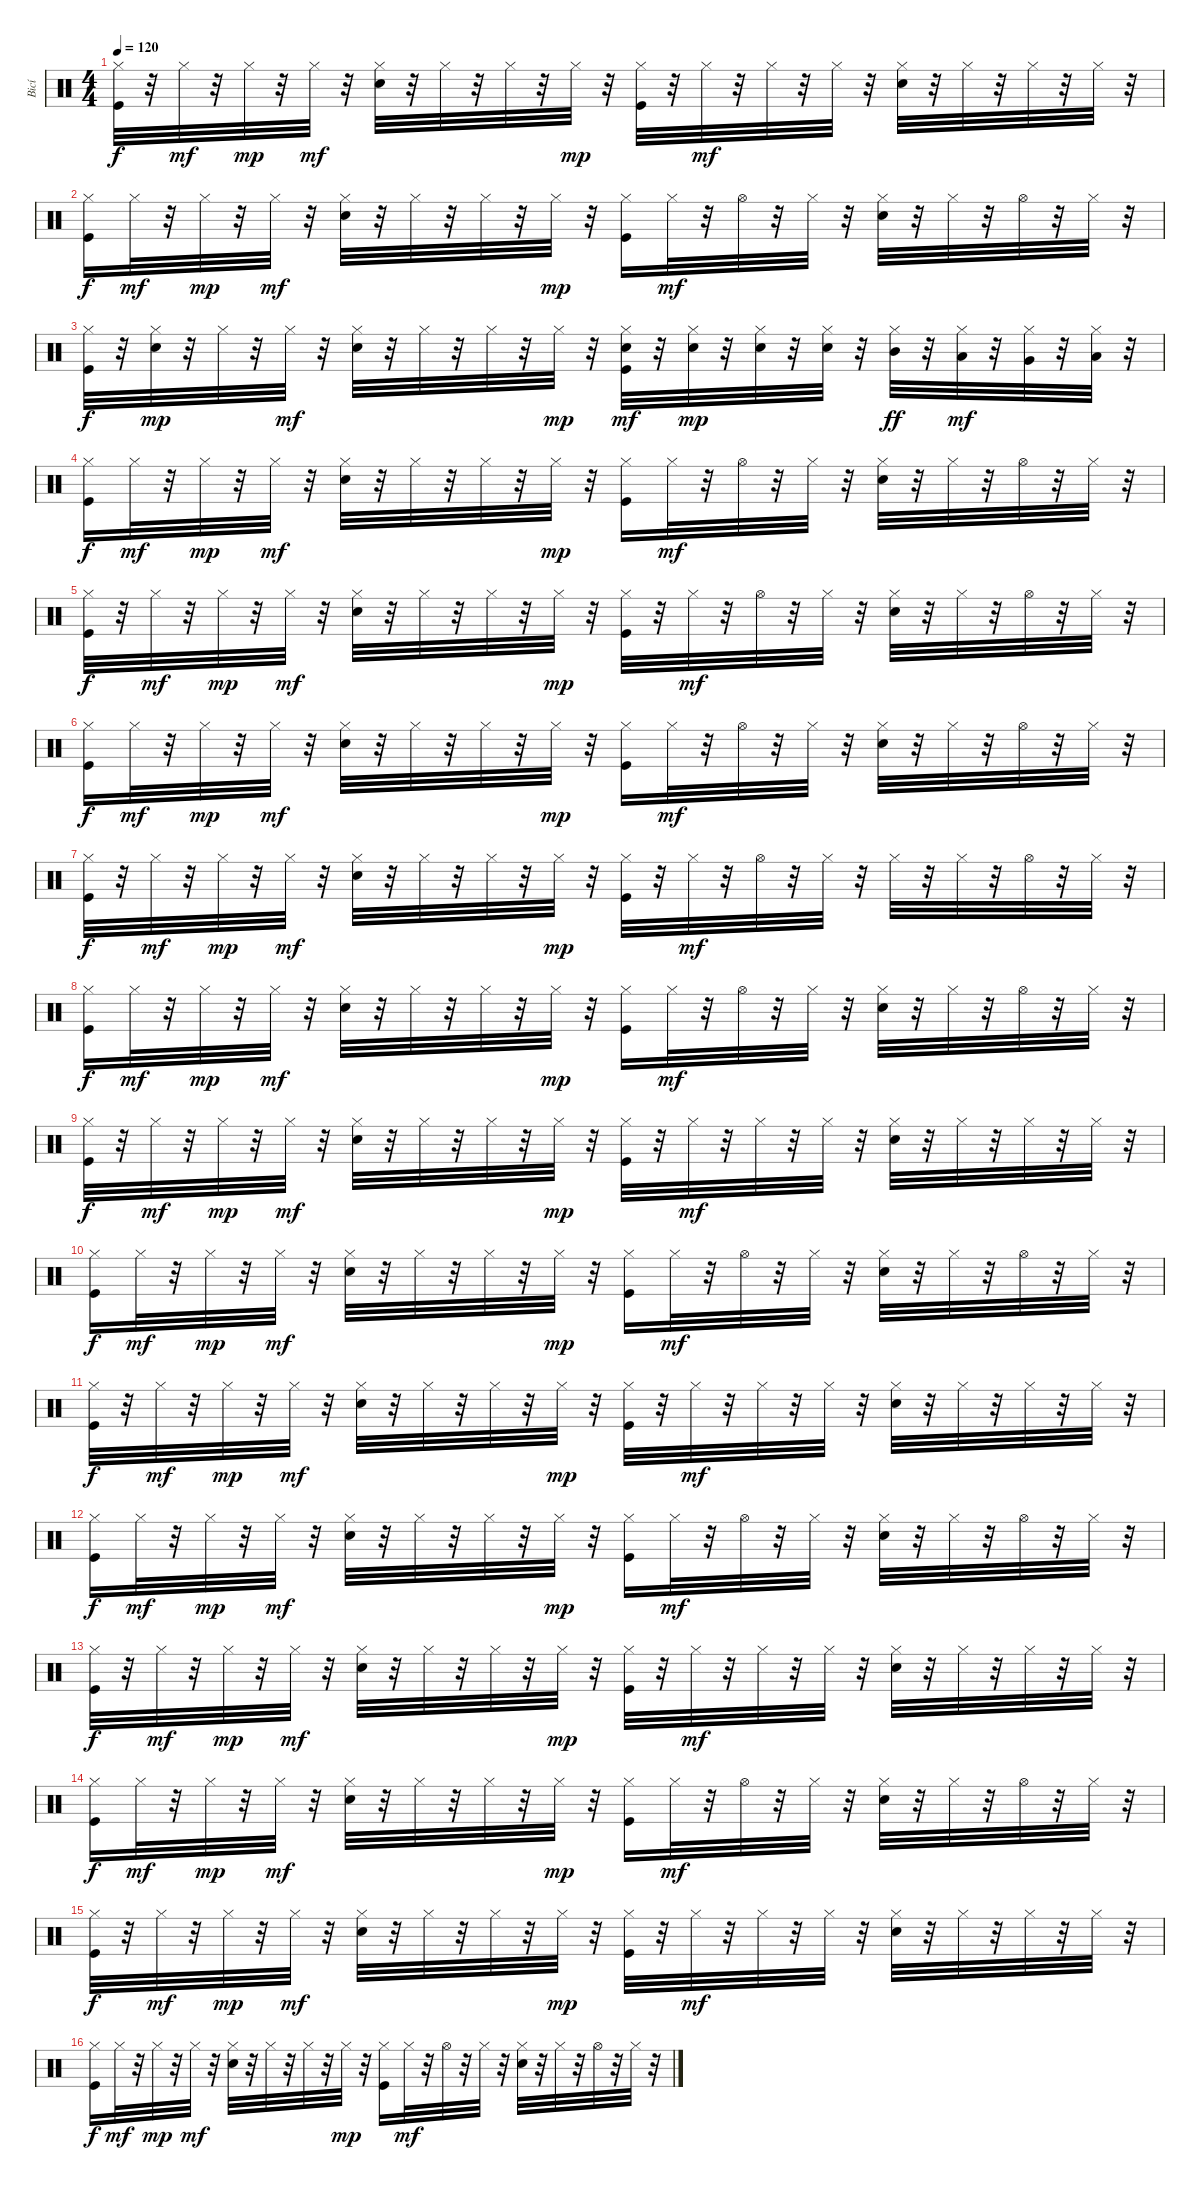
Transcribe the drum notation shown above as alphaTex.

\track ("Bicí" "Bicí") {instrument percussion}
\staff {score}
\articulation defaults
\ts (4 4)
\tempo 120
\clef neutral
\ks c
("Hi-Hat (closed)" "Kick (hit)").32{dy f} r.32 "Hi-Hat (closed)".32{dy mf} r.32 "Hi-Hat (closed)".32{dy mp} r.32 "Hi-Hat (closed)".32{dy mf} r.32 ("Hi-Hat (closed)" "Snare (hit) 2").32 r.32 "Hi-Hat (closed)".32 r.32 "Hi-Hat (closed)".32 r.32 "Hi-Hat (closed)".32{dy mp} r.32 ("Hi-Hat (closed)" "Kick (hit)").32 r.32 "Hi-Hat (closed)".32{dy mf} r.32 "Hi-Hat (closed)".32 r.32 "Hi-Hat (closed)".32 r.32 ("Hi-Hat (closed)" "Snare (hit) 2").32 r.32 "Hi-Hat (closed)".32 r.32 "Hi-Hat (closed)".32 r.32 "Hi-Hat (closed)".32 r.32 |
("Hi-Hat (closed)" "Kick (hit)").16{dy f} "Hi-Hat (closed)".32{dy mf} r.32 "Hi-Hat (closed)".32{dy mp} r.32 "Hi-Hat (closed)".32{dy mf} r.32 ("Hi-Hat (closed)" "Snare (hit) 2").32 r.32 "Hi-Hat (closed)".32 r.32 "Hi-Hat (closed)".32 r.32 "Hi-Hat (closed)".32{dy mp} r.32 ("Hi-Hat (closed)" "Kick (hit)").16 "Hi-Hat (closed)".32{dy mf} r.32 "Hi-Hat (open)".32 r.32 "Hi-Hat (closed)".32 r.32 ("Hi-Hat (closed)" "Snare (hit) 2").32 r.32 "Hi-Hat (closed)".32 r.32 "Hi-Hat (open)".32 r.32 "Hi-Hat (closed)".32 r.32 |
("Hi-Hat (closed)" "Kick (hit)").32{dy f} r.32 ("Hi-Hat (closed)" "Snare (hit) 2").32{dy mp} r.32 "Hi-Hat (closed)".32 r.32 "Hi-Hat (closed)".32{dy mf} r.32 ("Hi-Hat (closed)" "Snare (hit) 2").32 r.32 "Hi-Hat (closed)".32 r.32 "Hi-Hat (closed)".32 r.32 "Hi-Hat (closed)".32{dy mp} r.32 ("Hi-Hat (closed)" "Kick (hit)" "Snare (hit) 2").32{dy mf} r.32 ("Hi-Hat (closed)" "Snare (hit) 2").32{dy mp} r.32 ("Hi-Hat (closed)" "Snare (hit) 2").32 r.32 ("Hi-Hat (closed)" "Snare (hit) 2").32 r.32 ("Hi-Hat (closed)" "Mid Tom (hit)").32{dy ff} r.32 ("Hi-Hat (closed)" "Low Tom (hit)").32{dy mf} r.32 ("Hi-Hat (closed)" "Very Low Tom (hit)").32 r.32 ("Hi-Hat (closed)" "Low Floor Tom (hit)").32 r.32 |
("Hi-Hat (closed)" "Kick (hit)").16{dy f} "Hi-Hat (closed)".32{dy mf} r.32 "Hi-Hat (closed)".32{dy mp} r.32 "Hi-Hat (closed)".32{dy mf} r.32 ("Hi-Hat (closed)" "Snare (hit) 2").32 r.32 "Hi-Hat (closed)".32 r.32 "Hi-Hat (closed)".32 r.32 "Hi-Hat (closed)".32{dy mp} r.32 ("Hi-Hat (closed)" "Kick (hit)").16 "Hi-Hat (closed)".32{dy mf} r.32 "Hi-Hat (open)".32 r.32 "Hi-Hat (closed)".32 r.32 ("Hi-Hat (closed)" "Snare (hit) 2").32 r.32 "Hi-Hat (closed)".32 r.32 "Hi-Hat (open)".32 r.32 "Hi-Hat (closed)".32 r.32 |
("Hi-Hat (closed)" "Kick (hit)").32{dy f} r.32 "Hi-Hat (closed)".32{dy mf} r.32 "Hi-Hat (closed)".32{dy mp} r.32 "Hi-Hat (closed)".32{dy mf} r.32 ("Hi-Hat (closed)" "Snare (hit) 2").32 r.32 "Hi-Hat (closed)".32 r.32 "Hi-Hat (closed)".32 r.32 "Hi-Hat (closed)".32{dy mp} r.32 ("Hi-Hat (closed)" "Kick (hit)").32 r.32 "Hi-Hat (closed)".32{dy mf} r.32 "Hi-Hat (open)".32 r.32 "Hi-Hat (closed)".32 r.32 ("Hi-Hat (closed)" "Snare (hit) 2").32 r.32 "Hi-Hat (closed)".32 r.32 "Hi-Hat (open)".32 r.32 "Hi-Hat (closed)".32 r.32 |
("Hi-Hat (closed)" "Kick (hit)").16{dy f} "Hi-Hat (closed)".32{dy mf} r.32 "Hi-Hat (closed)".32{dy mp} r.32 "Hi-Hat (closed)".32{dy mf} r.32 ("Hi-Hat (closed)" "Snare (hit) 2").32 r.32 "Hi-Hat (closed)".32 r.32 "Hi-Hat (closed)".32 r.32 "Hi-Hat (closed)".32{dy mp} r.32 ("Hi-Hat (closed)" "Kick (hit)").16 "Hi-Hat (closed)".32{dy mf} r.32 "Hi-Hat (open)".32 r.32 "Hi-Hat (closed)".32 r.32 ("Hi-Hat (closed)" "Snare (hit) 2").32 r.32 "Hi-Hat (closed)".32 r.32 "Hi-Hat (open)".32 r.32 "Hi-Hat (closed)".32 r.32 |
("Hi-Hat (closed)" "Kick (hit)").32{dy f} r.32 "Hi-Hat (closed)".32{dy mf} r.32 "Hi-Hat (closed)".32{dy mp} r.32 "Hi-Hat (closed)".32{dy mf} r.32 ("Hi-Hat (closed)" "Snare (hit) 2").32 r.32 "Hi-Hat (closed)".32 r.32 "Hi-Hat (closed)".32 r.32 "Hi-Hat (closed)".32{dy mp} r.32 ("Hi-Hat (closed)" "Kick (hit)").32 r.32 "Hi-Hat (closed)".32{dy mf} r.32 "Hi-Hat (open)".32 r.32 "Hi-Hat (closed)".32 r.32 "Hi-Hat (closed)".32 r.32 "Hi-Hat (closed)".32 r.32 "Hi-Hat (open)".32 r.32 "Hi-Hat (closed)".32 r.32 |
("Hi-Hat (closed)" "Kick (hit)").16{dy f} "Hi-Hat (closed)".32{dy mf} r.32 "Hi-Hat (closed)".32{dy mp} r.32 "Hi-Hat (closed)".32{dy mf} r.32 ("Hi-Hat (closed)" "Snare (hit) 2").32 r.32 "Hi-Hat (closed)".32 r.32 "Hi-Hat (closed)".32 r.32 "Hi-Hat (closed)".32{dy mp} r.32 ("Hi-Hat (closed)" "Kick (hit)").16 "Hi-Hat (closed)".32{dy mf} r.32 "Hi-Hat (open)".32 r.32 "Hi-Hat (closed)".32 r.32 ("Hi-Hat (closed)" "Snare (hit) 2").32 r.32 "Hi-Hat (closed)".32 r.32 "Hi-Hat (open)".32 r.32 "Hi-Hat (closed)".32 r.32 |
("Hi-Hat (closed)" "Kick (hit)").32{dy f} r.32 "Hi-Hat (closed)".32{dy mf} r.32 "Hi-Hat (closed)".32{dy mp} r.32 "Hi-Hat (closed)".32{dy mf} r.32 ("Hi-Hat (closed)" "Snare (hit) 2").32 r.32 "Hi-Hat (closed)".32 r.32 "Hi-Hat (closed)".32 r.32 "Hi-Hat (closed)".32{dy mp} r.32 ("Hi-Hat (closed)" "Kick (hit)").32 r.32 "Hi-Hat (closed)".32{dy mf} r.32 "Hi-Hat (closed)".32 r.32 "Hi-Hat (closed)".32 r.32 ("Hi-Hat (closed)" "Snare (hit) 2").32 r.32 "Hi-Hat (closed)".32 r.32 "Hi-Hat (closed)".32 r.32 "Hi-Hat (closed)".32 r.32 |
("Hi-Hat (closed)" "Kick (hit)").16{dy f} "Hi-Hat (closed)".32{dy mf} r.32 "Hi-Hat (closed)".32{dy mp} r.32 "Hi-Hat (closed)".32{dy mf} r.32 ("Hi-Hat (closed)" "Snare (hit) 2").32 r.32 "Hi-Hat (closed)".32 r.32 "Hi-Hat (closed)".32 r.32 "Hi-Hat (closed)".32{dy mp} r.32 ("Hi-Hat (closed)" "Kick (hit)").16 "Hi-Hat (closed)".32{dy mf} r.32 "Hi-Hat (open)".32 r.32 "Hi-Hat (closed)".32 r.32 ("Hi-Hat (closed)" "Snare (hit) 2").32 r.32 "Hi-Hat (closed)".32 r.32 "Hi-Hat (open)".32 r.32 "Hi-Hat (closed)".32 r.32 |
("Hi-Hat (closed)" "Kick (hit)").32{dy f} r.32 "Hi-Hat (closed)".32{dy mf} r.32 "Hi-Hat (closed)".32{dy mp} r.32 "Hi-Hat (closed)".32{dy mf} r.32 ("Hi-Hat (closed)" "Snare (hit) 2").32 r.32 "Hi-Hat (closed)".32 r.32 "Hi-Hat (closed)".32 r.32 "Hi-Hat (closed)".32{dy mp} r.32 ("Hi-Hat (closed)" "Kick (hit)").32 r.32 "Hi-Hat (closed)".32{dy mf} r.32 "Hi-Hat (closed)".32 r.32 "Hi-Hat (closed)".32 r.32 ("Hi-Hat (closed)" "Snare (hit) 2").32 r.32 "Hi-Hat (closed)".32 r.32 "Hi-Hat (closed)".32 r.32 "Hi-Hat (closed)".32 r.32 |
("Hi-Hat (closed)" "Kick (hit)").16{dy f} "Hi-Hat (closed)".32{dy mf} r.32 "Hi-Hat (closed)".32{dy mp} r.32 "Hi-Hat (closed)".32{dy mf} r.32 ("Hi-Hat (closed)" "Snare (hit) 2").32 r.32 "Hi-Hat (closed)".32 r.32 "Hi-Hat (closed)".32 r.32 "Hi-Hat (closed)".32{dy mp} r.32 ("Hi-Hat (closed)" "Kick (hit)").16 "Hi-Hat (closed)".32{dy mf} r.32 "Hi-Hat (open)".32 r.32 "Hi-Hat (closed)".32 r.32 ("Hi-Hat (closed)" "Snare (hit) 2").32 r.32 "Hi-Hat (closed)".32 r.32 "Hi-Hat (open)".32 r.32 "Hi-Hat (closed)".32 r.32 |
("Hi-Hat (closed)" "Kick (hit)").32{dy f} r.32 "Hi-Hat (closed)".32{dy mf} r.32 "Hi-Hat (closed)".32{dy mp} r.32 "Hi-Hat (closed)".32{dy mf} r.32 ("Hi-Hat (closed)" "Snare (hit) 2").32 r.32 "Hi-Hat (closed)".32 r.32 "Hi-Hat (closed)".32 r.32 "Hi-Hat (closed)".32{dy mp} r.32 ("Hi-Hat (closed)" "Kick (hit)").32 r.32 "Hi-Hat (closed)".32{dy mf} r.32 "Hi-Hat (closed)".32 r.32 "Hi-Hat (closed)".32 r.32 ("Hi-Hat (closed)" "Snare (hit) 2").32 r.32 "Hi-Hat (closed)".32 r.32 "Hi-Hat (closed)".32 r.32 "Hi-Hat (closed)".32 r.32 |
("Hi-Hat (closed)" "Kick (hit)").16{dy f} "Hi-Hat (closed)".32{dy mf} r.32 "Hi-Hat (closed)".32{dy mp} r.32 "Hi-Hat (closed)".32{dy mf} r.32 ("Hi-Hat (closed)" "Snare (hit) 2").32 r.32 "Hi-Hat (closed)".32 r.32 "Hi-Hat (closed)".32 r.32 "Hi-Hat (closed)".32{dy mp} r.32 ("Hi-Hat (closed)" "Kick (hit)").16 "Hi-Hat (closed)".32{dy mf} r.32 "Hi-Hat (open)".32 r.32 "Hi-Hat (closed)".32 r.32 ("Hi-Hat (closed)" "Snare (hit) 2").32 r.32 "Hi-Hat (closed)".32 r.32 "Hi-Hat (open)".32 r.32 "Hi-Hat (closed)".32 r.32 |
("Hi-Hat (closed)" "Kick (hit)").32{dy f} r.32 "Hi-Hat (closed)".32{dy mf} r.32 "Hi-Hat (closed)".32{dy mp} r.32 "Hi-Hat (closed)".32{dy mf} r.32 ("Hi-Hat (closed)" "Snare (hit) 2").32 r.32 "Hi-Hat (closed)".32 r.32 "Hi-Hat (closed)".32 r.32 "Hi-Hat (closed)".32{dy mp} r.32 ("Hi-Hat (closed)" "Kick (hit)").32 r.32 "Hi-Hat (closed)".32{dy mf} r.32 "Hi-Hat (closed)".32 r.32 "Hi-Hat (closed)".32 r.32 ("Hi-Hat (closed)" "Snare (hit) 2").32 r.32 "Hi-Hat (closed)".32 r.32 "Hi-Hat (closed)".32 r.32 "Hi-Hat (closed)".32 r.32 |
("Hi-Hat (closed)" "Kick (hit)").16{dy f} "Hi-Hat (closed)".32{dy mf} r.32 "Hi-Hat (closed)".32{dy mp} r.32 "Hi-Hat (closed)".32{dy mf} r.32 ("Hi-Hat (closed)" "Snare (hit) 2").32 r.32 "Hi-Hat (closed)".32 r.32 "Hi-Hat (closed)".32 r.32 "Hi-Hat (closed)".32{dy mp} r.32 ("Hi-Hat (closed)" "Kick (hit)").16 "Hi-Hat (closed)".32{dy mf} r.32 "Hi-Hat (open)".32 r.32 "Hi-Hat (closed)".32 r.32 ("Hi-Hat (closed)" "Snare (hit) 2").32 r.32 "Hi-Hat (closed)".32 r.32 "Hi-Hat (open)".32 r.32 "Hi-Hat (closed)".32 r.32
